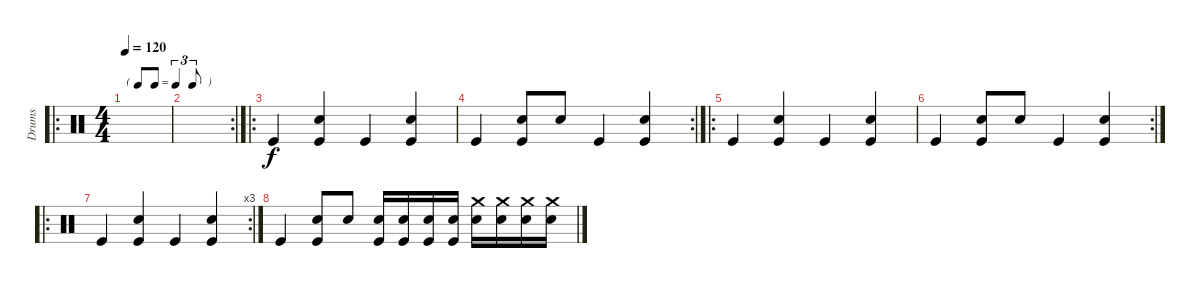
\track ("Drums" "Drums") {instrument percussion}
\staff {score}
\articulation defaults
\ro
\ts (4 4)
\tf triplet8th
\tempo 120
\clef neutral
\ks c
|
\rc 2
|
\ro "Kick (hit)".4
("Kick (hit)" "Snare (hit) 2").4 "Kick (hit)".4 ("Kick (hit)" "Snare (hit) 2").4 |
\rc 2 "Kick (hit)".4
("Kick (hit)" "Snare (hit) 2").8 "Snare (hit) 2".8 "Kick (hit)".4 ("Kick (hit)" "Snare (hit) 2").4 |
\ro "Kick (hit)".4
("Kick (hit)" "Snare (hit) 2").4 "Kick (hit)".4 ("Kick (hit)" "Snare (hit) 2").4 |
\rc 2 "Kick (hit)".4
("Kick (hit)" "Snare (hit) 2").8 "Snare (hit) 2".8 "Kick (hit)".4 ("Kick (hit)" "Snare (hit) 2").4 |
\ro
\rc 3 "Kick (hit)".4
("Kick (hit)" "Snare (hit) 2").4 "Kick (hit)".4 ("Kick (hit)" "Snare (hit) 2").4 |
"Kick (hit)".4 ("Kick (hit)" "Snare (hit) 2").8 "Snare (hit) 2".8 ("Kick (hit)" "Snare (hit) 2").16 ("Kick (hit)" "Snare (hit) 2").16 ("Kick (hit)" "Snare (hit) 2").16 ("Kick (hit)" "Snare (hit) 2").16 ("Crash medium (hit)" "Snare (hit) 2").16 ("Crash medium (hit)" "Snare (hit) 2").16 ("Crash medium (hit)" "Snare (hit) 2").16 ("Crash medium (hit)" "Snare (hit) 2").16
